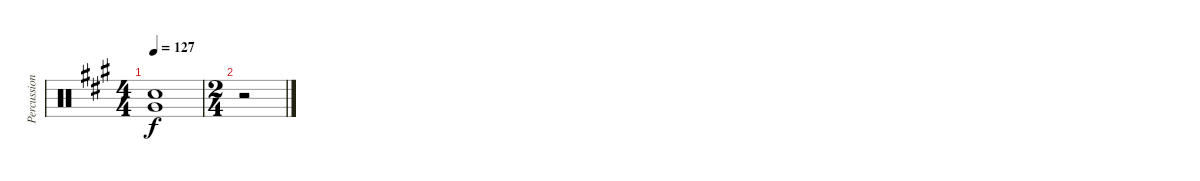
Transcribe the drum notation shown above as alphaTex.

\track ("Percussion" "Percussion") {instrument percussion}
\staff {score}
\articulation defaults
\ts (4 4)
\tempo 127
\clef neutral
\ks a
("Very Low Tom (hit)" "Electric Snare (hit)").1{dy f} |
\ts (2 4)
r.2
